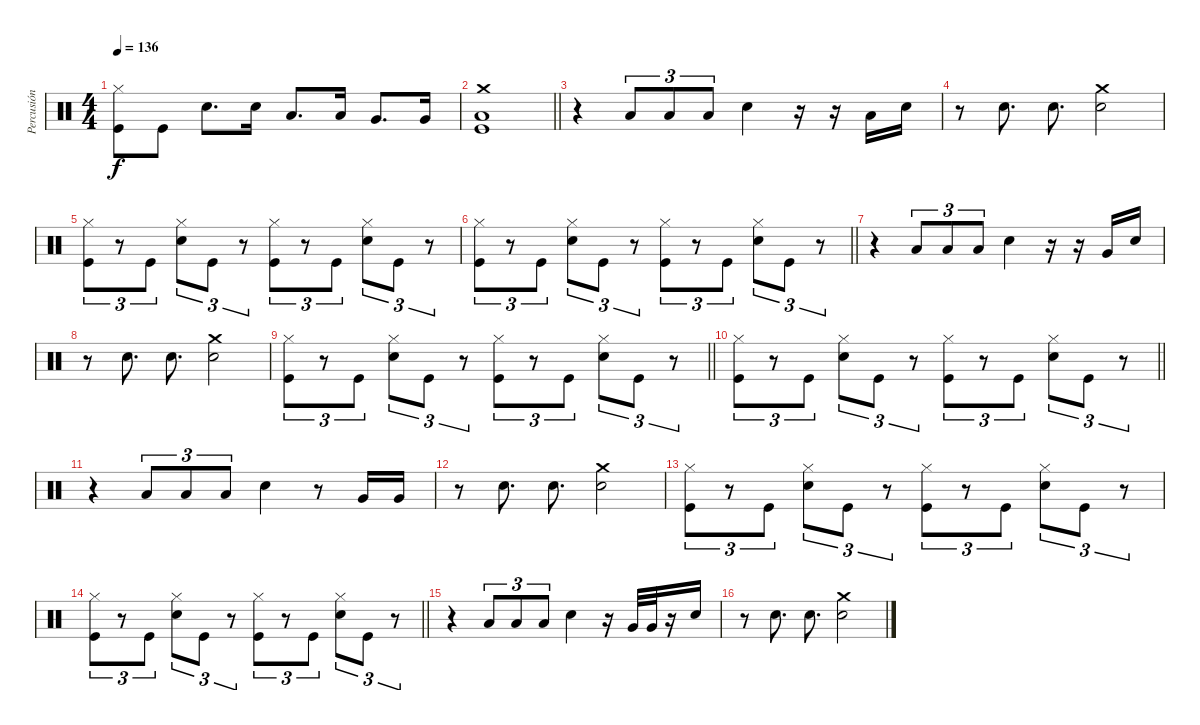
\track ("Percusión" "Percusión") {instrument percussion}
\staff {score}
\articulation defaults
\ts (4 4)
\tempo 136
\clef neutral
\ks c
("Hi-Hat (closed)" "Kick (hit)").8{dy f} "Kick (hit)".8 "Snare (hit) 2".8{d} "Snare (hit) 2".16 "Low Tom (hit)".8{d} "Low Tom (hit)".16 "Very Low Tom (hit)".8{d} "Very Low Tom (hit)".16 |
\barLineRight lightlight
("Crash medium (hit)" "Low Floor Tom (hit)" "Kick (hit)").1 |
r.4 "Low Tom (hit)".8{tu (3 2)} "Low Tom (hit)".8{tu (3 2)} "Low Tom (hit)".8{tu (3 2)} "Snare (hit) 2".4 r.16 r.16 "Low Floor Tom (hit)".16 "Snare (hit) 2".16 |
r.8 "Snare (hit) 2".8{d} "Snare (hit) 2".8{d} ("Crash medium (hit)" "Snare (hit) 2").2 |
("Hi-Hat (closed)" "Kick (hit)").8{tu (3 2)} r.8{tu (3 2)} "Kick (hit)".8{tu (3 2)} ("Hi-Hat (closed)" "Snare (hit) 2").8{tu (3 2)} "Kick (hit)".8{tu (3 2)} r.8{tu (3 2)} ("Hi-Hat (closed)" "Kick (hit)").8{tu (3 2)} r.8{tu (3 2)} "Kick (hit)".8{tu (3 2)} ("Hi-Hat (closed)" "Snare (hit) 2").8{tu (3 2)} "Kick (hit)".8{tu (3 2)} r.8{tu (3 2)} |
\barLineRight lightlight
("Hi-Hat (closed)" "Kick (hit)").8{tu (3 2)} r.8{tu (3 2)} "Kick (hit)".8{tu (3 2)} ("Hi-Hat (closed)" "Snare (hit) 2").8{tu (3 2)} "Kick (hit)".8{tu (3 2)} r.8{tu (3 2)} ("Hi-Hat (closed)" "Kick (hit)").8{tu (3 2)} r.8{tu (3 2)} "Kick (hit)".8{tu (3 2)} ("Hi-Hat (closed)" "Snare (hit) 2").8{tu (3 2)} "Kick (hit)".8{tu (3 2)} r.8{tu (3 2)} |
r.4 "Low Tom (hit)".8{tu (3 2)} "Low Tom (hit)".8{tu (3 2)} "Low Tom (hit)".8{tu (3 2)} "Snare (hit) 2".4 r.16 r.16 "Very Low Tom (hit)".16 "Snare (hit) 2".16 |
r.8 "Snare (hit) 2".8{d} "Snare (hit) 2".8{d} ("Crash medium (hit)" "Snare (hit) 2").2 |
\barLineRight lightlight
("Hi-Hat (closed)" "Kick (hit)").8{tu (3 2)} r.8{tu (3 2)} "Kick (hit)".8{tu (3 2)} ("Hi-Hat (closed)" "Snare (hit) 2").8{tu (3 2)} "Kick (hit)".8{tu (3 2)} r.8{tu (3 2)} ("Hi-Hat (closed)" "Kick (hit)").8{tu (3 2)} r.8{tu (3 2)} "Kick (hit)".8{tu (3 2)} ("Hi-Hat (closed)" "Snare (hit) 2").8{tu (3 2)} "Kick (hit)".8{tu (3 2)} r.8{tu (3 2)} |
\barLineRight lightlight
("Hi-Hat (closed)" "Kick (hit)").8{tu (3 2)} r.8{tu (3 2)} "Kick (hit)".8{tu (3 2)} ("Hi-Hat (closed)" "Snare (hit) 2").8{tu (3 2)} "Kick (hit)".8{tu (3 2)} r.8{tu (3 2)} ("Hi-Hat (closed)" "Kick (hit)").8{tu (3 2)} r.8{tu (3 2)} "Kick (hit)".8{tu (3 2)} ("Hi-Hat (closed)" "Snare (hit) 2").8{tu (3 2)} "Kick (hit)".8{tu (3 2)} r.8{tu (3 2)} |
r.4 "Low Tom (hit)".8{tu (3 2)} "Low Tom (hit)".8{tu (3 2)} "Low Tom (hit)".8{tu (3 2)} "Snare (hit) 2".4 r.8 "Very Low Tom (hit)".16 "Very Low Tom (hit)".16 |
r.8 "Snare (hit) 2".8{d} "Snare (hit) 2".8{d} ("Crash medium (hit)" "Snare (hit) 2").2 |
("Hi-Hat (closed)" "Kick (hit)").8{tu (3 2)} r.8{tu (3 2)} "Kick (hit)".8{tu (3 2)} ("Hi-Hat (closed)" "Snare (hit) 2").8{tu (3 2)} "Kick (hit)".8{tu (3 2)} r.8{tu (3 2)} ("Hi-Hat (closed)" "Kick (hit)").8{tu (3 2)} r.8{tu (3 2)} "Kick (hit)".8{tu (3 2)} ("Hi-Hat (closed)" "Snare (hit) 2").8{tu (3 2)} "Kick (hit)".8{tu (3 2)} r.8{tu (3 2)} |
\barLineRight lightlight
("Hi-Hat (closed)" "Kick (hit)").8{tu (3 2)} r.8{tu (3 2)} "Kick (hit)".8{tu (3 2)} ("Hi-Hat (closed)" "Snare (hit) 2").8{tu (3 2)} "Kick (hit)".8{tu (3 2)} r.8{tu (3 2)} ("Hi-Hat (closed)" "Kick (hit)").8{tu (3 2)} r.8{tu (3 2)} "Kick (hit)".8{tu (3 2)} ("Hi-Hat (closed)" "Snare (hit) 2").8{tu (3 2)} "Kick (hit)".8{tu (3 2)} r.8{tu (3 2)} |
r.4 "Low Tom (hit)".8{tu (3 2)} "Low Tom (hit)".8{tu (3 2)} "Low Tom (hit)".8{tu (3 2)} "Snare (hit) 2".4 r.16 "Very Low Tom (hit)".32 "Very Low Tom (hit)".32 r.16 "Snare (hit) 2".16 |
r.8 "Snare (hit) 2".8{d} "Snare (hit) 2".8{d} ("Crash medium (hit)" "Snare (hit) 2").2
